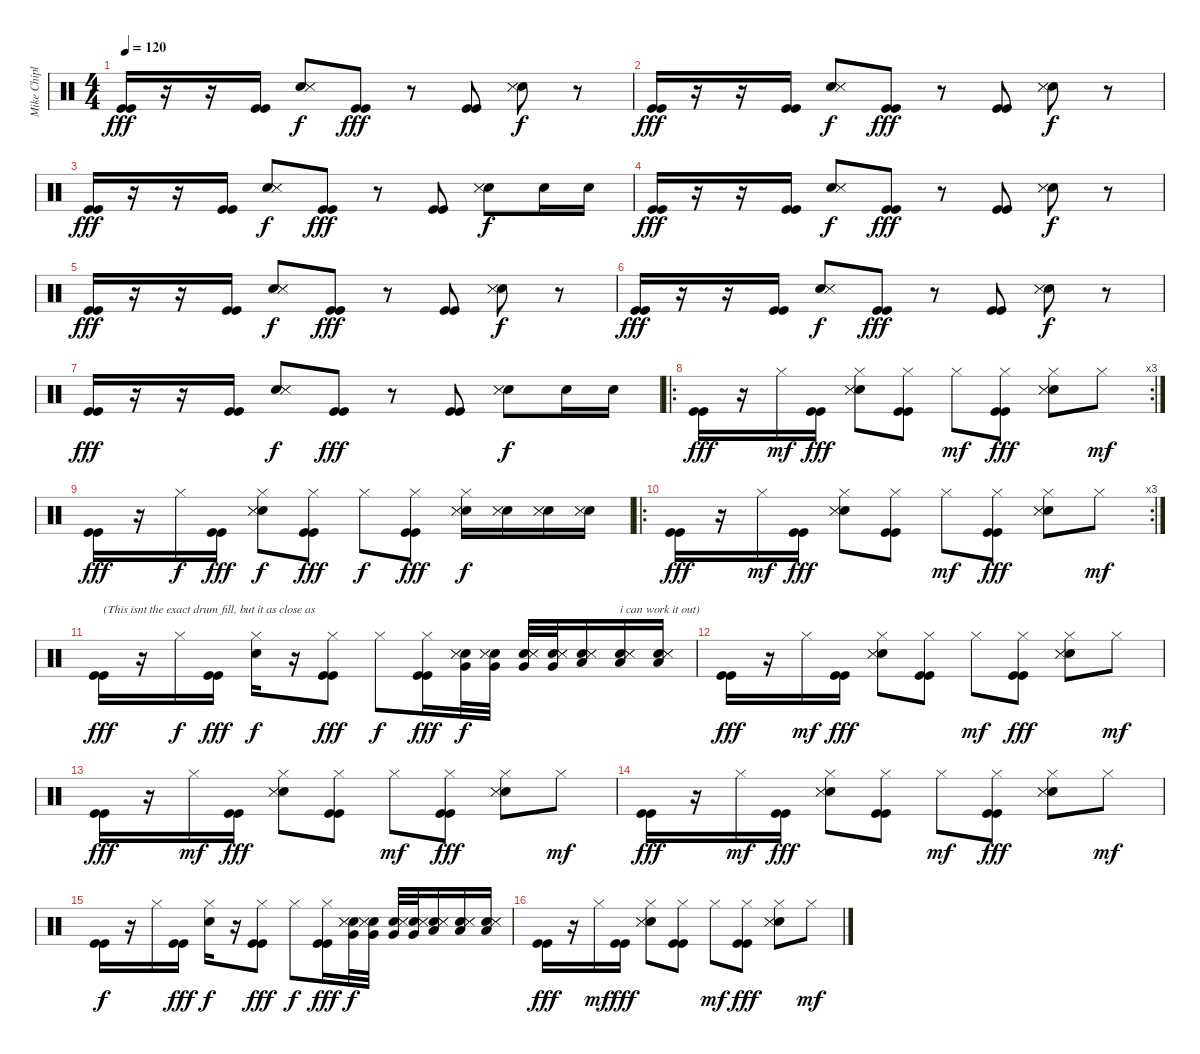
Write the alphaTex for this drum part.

\track ("Mike Chiplin" "Mike Chipl") {instrument percussion}
\staff {score}
\articulation defaults
\ts (4 4)
\tempo 120
\clef neutral
\ks c
("Kick (hit)" "Kick (hit)").16{dy fff} r.16 r.16 ("Kick (hit)" "Kick (hit)").16 ("Electric Snare (hit)" "Snare (side stick) 3" "Snare (side stick) 3").8{dy f} ("Kick (hit)" "Kick (hit)").8{dy fff} r.8 ("Kick (hit)" "Kick (hit)").8 ("Electric Snare (hit)" "Snare (side stick) 3" "Snare (side stick) 3").8{dy f} r.8 |
("Kick (hit)" "Kick (hit)").16{dy fff} r.16 r.16 ("Kick (hit)" "Kick (hit)").16 ("Electric Snare (hit)" "Snare (side stick) 3" "Snare (side stick) 3").8{dy f} ("Kick (hit)" "Kick (hit)").8{dy fff} r.8 ("Kick (hit)" "Kick (hit)").8 ("Electric Snare (hit)" "Snare (side stick) 3" "Snare (side stick) 3").8{dy f} r.8 |
("Kick (hit)" "Kick (hit)").16{dy fff} r.16 r.16 ("Kick (hit)" "Kick (hit)").16 ("Electric Snare (hit)" "Snare (side stick) 3" "Snare (side stick) 3").8{dy f} ("Kick (hit)" "Kick (hit)").8{dy fff} r.8 ("Kick (hit)" "Kick (hit)").8 ("Electric Snare (hit)" "Snare (side stick) 3" "Snare (side stick) 3").8{dy f} "Electric Snare (hit)".16 "Electric Snare (hit)".16 |
("Kick (hit)" "Kick (hit)").16{dy fff} r.16 r.16 ("Kick (hit)" "Kick (hit)").16 ("Electric Snare (hit)" "Snare (side stick) 3" "Snare (side stick) 3").8{dy f} ("Kick (hit)" "Kick (hit)").8{dy fff} r.8 ("Kick (hit)" "Kick (hit)").8 ("Electric Snare (hit)" "Snare (side stick) 3" "Snare (side stick) 3").8{dy f} r.8 |
("Kick (hit)" "Kick (hit)").16{dy fff} r.16 r.16 ("Kick (hit)" "Kick (hit)").16 ("Electric Snare (hit)" "Snare (side stick) 3" "Snare (side stick) 3").8{dy f} ("Kick (hit)" "Kick (hit)").8{dy fff} r.8 ("Kick (hit)" "Kick (hit)").8 ("Electric Snare (hit)" "Snare (side stick) 3" "Snare (side stick) 3").8{dy f} r.8 |
("Kick (hit)" "Kick (hit)").16{dy fff} r.16 r.16 ("Kick (hit)" "Kick (hit)").16 ("Electric Snare (hit)" "Snare (side stick) 3" "Snare (side stick) 3").8{dy f} ("Kick (hit)" "Kick (hit)").8{dy fff} r.8 ("Kick (hit)" "Kick (hit)").8 ("Electric Snare (hit)" "Snare (side stick) 3" "Snare (side stick) 3").8{dy f} r.8 |
("Kick (hit)" "Kick (hit)").16{dy fff} r.16 r.16 ("Kick (hit)" "Kick (hit)").16 ("Electric Snare (hit)" "Snare (side stick) 3" "Snare (side stick) 3").8{dy f} ("Kick (hit)" "Kick (hit)").8{dy fff} r.8 ("Kick (hit)" "Kick (hit)").8 ("Electric Snare (hit)" "Snare (side stick) 3" "Snare (side stick) 3").8{dy f} "Electric Snare (hit)".16 "Electric Snare (hit)".16 |
\ro
\rc 3
("Kick (hit)" "Kick (hit)").16{dy fff} r.16 "Hi-Hat (closed)".16{dy mf} ("Kick (hit)" "Kick (hit)").16{dy fff} ("Hi-Hat (closed)" "Electric Snare (hit)" "Snare (side stick) 3" "Snare (side stick) 3").8 ("Hi-Hat (closed)" "Kick (hit)" "Kick (hit)").8 "Hi-Hat (closed)".8{dy mf} ("Hi-Hat (closed)" "Kick (hit)" "Kick (hit)").8{dy fff} ("Hi-Hat (closed)" "Electric Snare (hit)" "Snare (side stick) 3" "Snare (side stick) 3").8 "Hi-Hat (closed)".8{dy mf} |
("Kick (hit)" "Kick (hit)").16{dy fff} r.16 "Hi-Hat (closed)".16{dy f} ("Kick (hit)" "Kick (hit)").16{dy fff} ("Hi-Hat (closed)" "Electric Snare (hit)" "Snare (side stick) 3" "Snare (side stick) 3").8{dy f} ("Hi-Hat (closed)" "Kick (hit)" "Kick (hit)").8{dy fff} "Hi-Hat (closed)".8{dy f} ("Hi-Hat (closed)" "Kick (hit)" "Kick (hit)").8{dy fff} ("Hi-Hat (closed)" "Electric Snare (hit)" "Snare (side stick) 3" "Snare (side stick) 3").16{dy f} ("Electric Snare (hit)" "Snare (side stick) 3" "Snare (side stick) 3").16 ("Electric Snare (hit)" "Snare (side stick) 3" "Snare (side stick) 3").16 ("Electric Snare (hit)" "Snare (side stick) 3" "Snare (side stick) 3").16 |
\ro
\rc 3
("Kick (hit)" "Kick (hit)").16{dy fff} r.16 "Hi-Hat (closed)".16{dy mf} ("Kick (hit)" "Kick (hit)").16{dy fff} ("Hi-Hat (closed)" "Electric Snare (hit)" "Snare (side stick) 3" "Snare (side stick) 3").8 ("Hi-Hat (closed)" "Kick (hit)" "Kick (hit)").8 "Hi-Hat (closed)".8{dy mf} ("Hi-Hat (closed)" "Kick (hit)" "Kick (hit)").8{dy fff} ("Hi-Hat (closed)" "Electric Snare (hit)" "Snare (side stick) 3" "Snare (side stick) 3").8 "Hi-Hat (closed)".8{dy mf} |
("Kick (hit)" "Kick (hit)").16{txt "(This isnt the exact drum fill, but it as close as" dy fff} r.16 "Hi-Hat (closed)".16{dy f} ("Kick (hit)" "Kick (hit)").16{dy fff} ("Hi-Hat (closed)" "Electric Snare (hit)").16{dy f} r.16 ("Hi-Hat (closed)" "Kick (hit)" "Kick (hit)").8{dy fff} "Hi-Hat (closed)".8{dy f} ("Hi-Hat (closed)" "Kick (hit)" "Kick (hit)").16{dy fff} ("Very Low Tom (hit)" "Electric Snare (hit)" "Snare (side stick) 3" "Snare (side stick) 3").32{dy f} ("Very Low Tom (hit)" "Electric Snare (hit)" "Snare (side stick) 3" "Snare (side stick) 3").32 ("Very Low Tom (hit)" "Electric Snare (hit)" "Snare (side stick) 3" "Snare (side stick) 3").32 ("Very Low Tom (hit)" "Electric Snare (hit)" "Snare (side stick) 3" "Snare (side stick) 3").32 ("Low Tom (hit)" "Electric Snare (hit)" "Snare (side stick) 3" "Snare (side stick) 3").16 ("Low Tom (hit)" "Electric Snare (hit)" "Snare (side stick) 3" "Snare (side stick) 3").16{txt "i can work it out)"} ("Low Tom (hit)" "Electric Snare (hit)" "Snare (side stick) 3" "Snare (side stick) 3").16 |
("Kick (hit)" "Kick (hit)").16{dy fff} r.16 "Hi-Hat (closed)".16{dy mf} ("Kick (hit)" "Kick (hit)").16{dy fff} ("Hi-Hat (closed)" "Electric Snare (hit)" "Snare (side stick) 3" "Snare (side stick) 3").8 ("Hi-Hat (closed)" "Kick (hit)" "Kick (hit)").8 "Hi-Hat (closed)".8{dy mf} ("Hi-Hat (closed)" "Kick (hit)" "Kick (hit)").8{dy fff} ("Hi-Hat (closed)" "Electric Snare (hit)" "Snare (side stick) 3" "Snare (side stick) 3").8 "Hi-Hat (closed)".8{dy mf} |
("Kick (hit)" "Kick (hit)").16{dy fff} r.16 "Hi-Hat (closed)".16{dy mf} ("Kick (hit)" "Kick (hit)").16{dy fff} ("Hi-Hat (closed)" "Electric Snare (hit)" "Snare (side stick) 3" "Snare (side stick) 3").8 ("Hi-Hat (closed)" "Kick (hit)" "Kick (hit)").8 "Hi-Hat (closed)".8{dy mf} ("Hi-Hat (closed)" "Kick (hit)" "Kick (hit)").8{dy fff} ("Hi-Hat (closed)" "Electric Snare (hit)" "Snare (side stick) 3" "Snare (side stick) 3").8 "Hi-Hat (closed)".8{dy mf} |
("Kick (hit)" "Kick (hit)").16{dy fff} r.16 "Hi-Hat (closed)".16{dy mf} ("Kick (hit)" "Kick (hit)").16{dy fff} ("Hi-Hat (closed)" "Electric Snare (hit)" "Snare (side stick) 3" "Snare (side stick) 3").8 ("Hi-Hat (closed)" "Kick (hit)" "Kick (hit)").8 "Hi-Hat (closed)".8{dy mf} ("Hi-Hat (closed)" "Kick (hit)" "Kick (hit)").8{dy fff} ("Hi-Hat (closed)" "Electric Snare (hit)" "Snare (side stick) 3" "Snare (side stick) 3").8 "Hi-Hat (closed)".8{dy mf} |
("Kick (hit)" "Kick (hit)").16{dy f} r.16 "Hi-Hat (closed)".16 ("Kick (hit)" "Kick (hit)").16{dy fff} ("Hi-Hat (closed)" "Electric Snare (hit)").16{dy f} r.16 ("Hi-Hat (closed)" "Kick (hit)" "Kick (hit)").8{dy fff} "Hi-Hat (closed)".8{dy f} ("Hi-Hat (closed)" "Kick (hit)" "Kick (hit)").16{dy fff} ("Very Low Tom (hit)" "Electric Snare (hit)" "Snare (side stick) 3" "Snare (side stick) 3").32{dy f} ("Very Low Tom (hit)" "Electric Snare (hit)" "Snare (side stick) 3" "Snare (side stick) 3").32 ("Very Low Tom (hit)" "Electric Snare (hit)" "Snare (side stick) 3" "Snare (side stick) 3").32 ("Very Low Tom (hit)" "Electric Snare (hit)" "Snare (side stick) 3" "Snare (side stick) 3").32 ("Low Tom (hit)" "Electric Snare (hit)" "Snare (side stick) 3" "Snare (side stick) 3").16 ("Low Tom (hit)" "Electric Snare (hit)" "Snare (side stick) 3" "Snare (side stick) 3").16 ("Low Tom (hit)" "Electric Snare (hit)" "Snare (side stick) 3" "Snare (side stick) 3").16 |
("Kick (hit)" "Kick (hit)").16{dy fff} r.16 "Hi-Hat (closed)".16{dy mf} ("Kick (hit)" "Kick (hit)").16{dy fff} ("Hi-Hat (closed)" "Electric Snare (hit)" "Snare (side stick) 3" "Snare (side stick) 3").8 ("Hi-Hat (closed)" "Kick (hit)" "Kick (hit)").8 "Hi-Hat (closed)".8{dy mf} ("Hi-Hat (closed)" "Kick (hit)" "Kick (hit)").8{dy fff} ("Hi-Hat (closed)" "Electric Snare (hit)" "Snare (side stick) 3" "Snare (side stick) 3").8 "Hi-Hat (closed)".8{dy mf}
